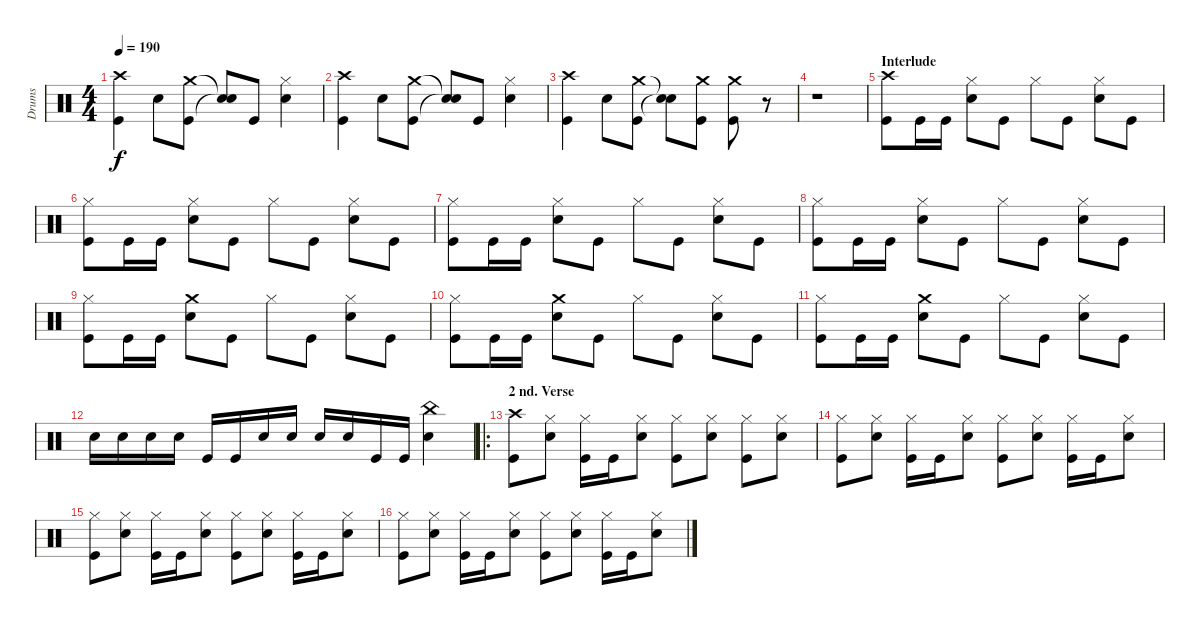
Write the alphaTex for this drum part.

\track ("Drums" "Drums") {instrument percussion}
\staff {score}
\articulation defaults
\ts (4 4)
\tempo 190
\clef neutral
\ks c
("Crash high (hit)" "Kick (hit)").4{dy f} "Snare (hit) 2".8 ("Crash medium (hit)" "Kick (hit)").8 ("Snare (hit)"{t} "Snare (hit)"{t}).8 "Kick (hit)".8 ("Hi-Hat (closed)" "Snare (hit) 2").4 |
("Crash high (hit)" "Kick (hit)").4 "Snare (hit) 2".8 ("Crash medium (hit)" "Kick (hit)").8 ("Snare (hit)"{t} "Snare (hit)"{t}).8 "Kick (hit)".8 ("Hi-Hat (closed)" "Snare (hit) 2").4 |
("Crash high (hit)" "Kick (hit)").4 "Snare (hit) 2".8 ("Crash medium (hit)" "Kick (hit)").8 ("Snare (hit)"{t} "Snare (hit)"{t}).8 ("Crash medium (hit)" "Kick (hit)").8 ("Crash medium (hit)" "Kick (hit)").8 r.8 |
r.1 |
\section ("" "Interlude")
("Crash high (hit)" "Kick (hit)").8 "Kick (hit)".16 "Kick (hit)".16 ("Hi-Hat (closed)" "Snare (hit) 2").8 "Kick (hit)".8 "Hi-Hat (closed)".8 "Kick (hit)".8 ("Hi-Hat (closed)" "Snare (hit) 2").8 "Kick (hit)".8 |
("Hi-Hat (closed)" "Kick (hit)").8 "Kick (hit)".16 "Kick (hit)".16 ("Hi-Hat (closed)" "Snare (hit) 2").8 "Kick (hit)".8 "Hi-Hat (closed)".8 "Kick (hit)".8 ("Hi-Hat (closed)" "Snare (hit) 2").8 "Kick (hit)".8 |
("Hi-Hat (closed)" "Kick (hit)").8 "Kick (hit)".16 "Kick (hit)".16 ("Hi-Hat (closed)" "Snare (hit) 2").8 "Kick (hit)".8 "Hi-Hat (closed)".8 "Kick (hit)".8 ("Hi-Hat (closed)" "Snare (hit) 2").8 "Kick (hit)".8 |
("Hi-Hat (closed)" "Kick (hit)").8 "Kick (hit)".16 "Kick (hit)".16 ("Hi-Hat (closed)" "Snare (hit) 2").8 "Kick (hit)".8 "Hi-Hat (closed)".8 "Kick (hit)".8 ("Hi-Hat (closed)" "Snare (hit) 2").8 "Kick (hit)".8 |
("Hi-Hat (closed)" "Kick (hit)").8 "Kick (hit)".16 "Kick (hit)".16 ("Crash medium (hit)" "Snare (hit) 2").8 "Kick (hit)".8 "Hi-Hat (closed)".8 "Kick (hit)".8 ("Hi-Hat (closed)" "Snare (hit) 2").8 "Kick (hit)".8 |
("Hi-Hat (closed)" "Kick (hit)").8 "Kick (hit)".16 "Kick (hit)".16 ("Crash medium (hit)" "Snare (hit) 2").8 "Kick (hit)".8 "Hi-Hat (closed)".8 "Kick (hit)".8 ("Hi-Hat (closed)" "Snare (hit) 2").8 "Kick (hit)".8 |
("Hi-Hat (closed)" "Kick (hit)").8 "Kick (hit)".16 "Kick (hit)".16 ("Crash medium (hit)" "Snare (hit) 2").8 "Kick (hit)".8 "Hi-Hat (closed)".8 "Kick (hit)".8 ("Hi-Hat (closed)" "Snare (hit) 2").8 "Kick (hit)".8 |
"Snare (hit) 2".16 "Snare (hit) 2".16 "Snare (hit) 2".16 "Snare (hit) 2".16 "Kick (hit)".16 "Kick (hit)".16 "Snare (hit) 2".16 "Snare (hit) 2".16 "Snare (hit) 2".16 "Snare (hit) 2".16 "Kick (hit)".16 "Kick (hit)".16 ("China (hit)" "Snare (hit) 2").4 |
\ro
\section ("" "2 nd. Verse")
("Crash high (hit)" "Kick (hit)").8 ("Hi-Hat (closed)" "Snare (hit) 2").8 ("Hi-Hat (closed)" "Kick (hit)").16 "Kick (hit)".16 ("Hi-Hat (closed)" "Snare (hit) 2").8 ("Hi-Hat (closed)" "Kick (hit)").8 ("Hi-Hat (closed)" "Snare (hit) 2").8 ("Hi-Hat (closed)" "Kick (hit)").8 ("Hi-Hat (closed)" "Snare (hit) 2").8 |
("Hi-Hat (closed)" "Kick (hit)").8 ("Hi-Hat (closed)" "Snare (hit) 2").8 ("Hi-Hat (closed)" "Kick (hit)").16 "Kick (hit)".16 ("Hi-Hat (closed)" "Snare (hit) 2").8 ("Hi-Hat (closed)" "Kick (hit)").8 ("Hi-Hat (closed)" "Snare (hit) 2").8 ("Hi-Hat (closed)" "Kick (hit)").16 "Kick (hit)".16 ("Hi-Hat (closed)" "Snare (hit) 2").8 |
("Hi-Hat (closed)" "Kick (hit)").8 ("Hi-Hat (closed)" "Snare (hit) 2").8 ("Hi-Hat (closed)" "Kick (hit)").16 "Kick (hit)".16 ("Hi-Hat (closed)" "Snare (hit) 2").8 ("Hi-Hat (closed)" "Kick (hit)").8 ("Hi-Hat (closed)" "Snare (hit) 2").8 ("Hi-Hat (closed)" "Kick (hit)").16 "Kick (hit)".16 ("Hi-Hat (closed)" "Snare (hit) 2").8 |
("Hi-Hat (closed)" "Kick (hit)").8 ("Hi-Hat (closed)" "Snare (hit) 2").8 ("Hi-Hat (closed)" "Kick (hit)").16 "Kick (hit)".16 ("Hi-Hat (closed)" "Snare (hit) 2").8 ("Hi-Hat (closed)" "Kick (hit)").8 ("Hi-Hat (closed)" "Snare (hit) 2").8 ("Hi-Hat (closed)" "Kick (hit)").16 "Kick (hit)".16 ("Hi-Hat (closed)" "Snare (hit) 2").8
